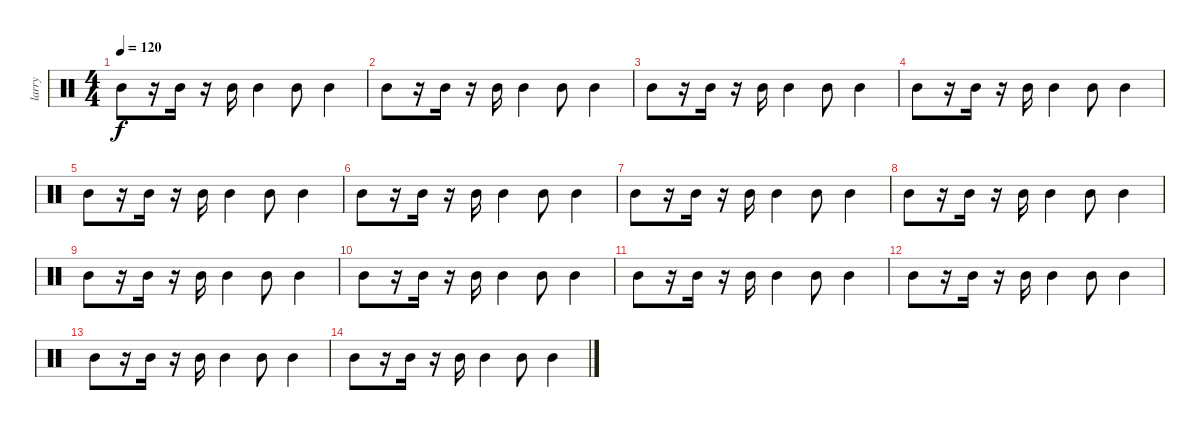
\track ("larry" "larry") {instrument percussion}
\staff {score}
\articulation defaults
\ts (4 4)
\tempo 120
\clef neutral
\ks c "Mid Tom (hit)".8{dy f}
r.16 "Mid Tom (hit)".16 r.16 "Mid Tom (hit)".16 "Mid Tom (hit)".4 "Mid Tom (hit)".8 "Mid Tom (hit)".4 |
"Mid Tom (hit)".8 r.16 "Mid Tom (hit)".16 r.16 "Mid Tom (hit)".16 "Mid Tom (hit)".4 "Mid Tom (hit)".8 "Mid Tom (hit)".4 |
"Mid Tom (hit)".8 r.16 "Mid Tom (hit)".16 r.16 "Mid Tom (hit)".16 "Mid Tom (hit)".4 "Mid Tom (hit)".8 "Mid Tom (hit)".4 |
"Mid Tom (hit)".8 r.16 "Mid Tom (hit)".16 r.16 "Mid Tom (hit)".16 "Mid Tom (hit)".4 "Mid Tom (hit)".8 "Mid Tom (hit)".4 |
"Mid Tom (hit)".8 r.16 "Mid Tom (hit)".16 r.16 "Mid Tom (hit)".16 "Mid Tom (hit)".4 "Mid Tom (hit)".8 "Mid Tom (hit)".4 |
"Mid Tom (hit)".8 r.16 "Mid Tom (hit)".16 r.16 "Mid Tom (hit)".16 "Mid Tom (hit)".4 "Mid Tom (hit)".8 "Mid Tom (hit)".4 |
"Mid Tom (hit)".8 r.16 "Mid Tom (hit)".16 r.16 "Mid Tom (hit)".16 "Mid Tom (hit)".4 "Mid Tom (hit)".8 "Mid Tom (hit)".4 |
"Mid Tom (hit)".8 r.16 "Mid Tom (hit)".16 r.16 "Mid Tom (hit)".16 "Mid Tom (hit)".4 "Mid Tom (hit)".8 "Mid Tom (hit)".4 |
"Mid Tom (hit)".8 r.16 "Mid Tom (hit)".16 r.16 "Mid Tom (hit)".16 "Mid Tom (hit)".4 "Mid Tom (hit)".8 "Mid Tom (hit)".4 |
"Mid Tom (hit)".8 r.16 "Mid Tom (hit)".16 r.16 "Mid Tom (hit)".16 "Mid Tom (hit)".4 "Mid Tom (hit)".8 "Mid Tom (hit)".4 |
"Mid Tom (hit)".8 r.16 "Mid Tom (hit)".16 r.16 "Mid Tom (hit)".16 "Mid Tom (hit)".4 "Mid Tom (hit)".8 "Mid Tom (hit)".4 |
"Mid Tom (hit)".8 r.16 "Mid Tom (hit)".16 r.16 "Mid Tom (hit)".16 "Mid Tom (hit)".4 "Mid Tom (hit)".8 "Mid Tom (hit)".4 |
"Mid Tom (hit)".8 r.16 "Mid Tom (hit)".16 r.16 "Mid Tom (hit)".16 "Mid Tom (hit)".4 "Mid Tom (hit)".8 "Mid Tom (hit)".4 |
"Mid Tom (hit)".8 r.16 "Mid Tom (hit)".16 r.16 "Mid Tom (hit)".16 "Mid Tom (hit)".4 "Mid Tom (hit)".8 "Mid Tom (hit)".4
